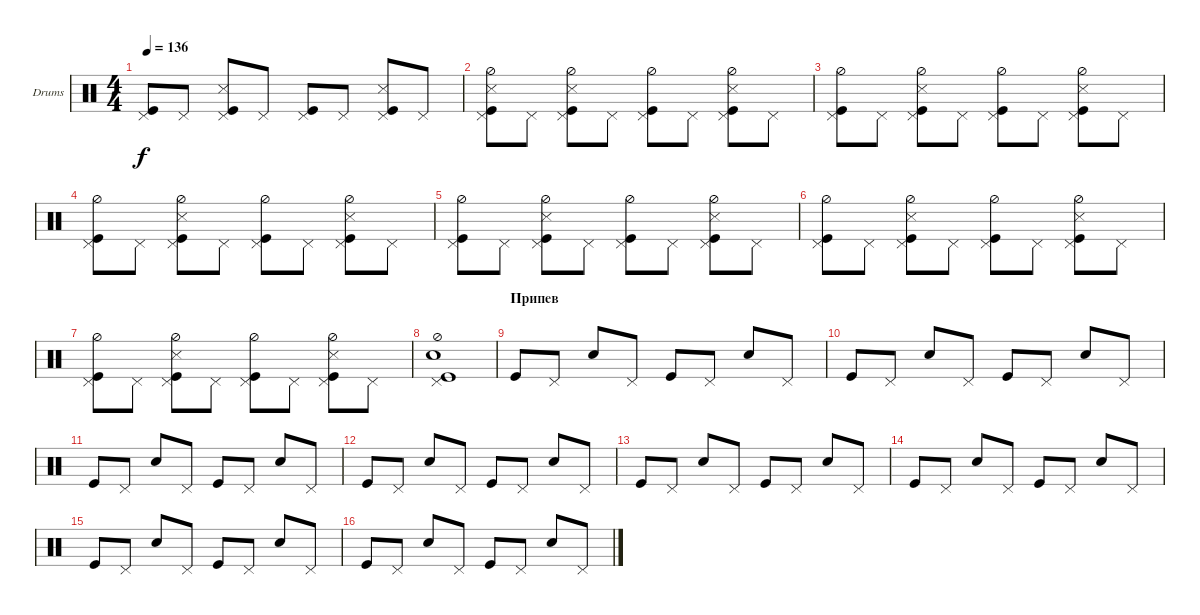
\defaultSystemsLayout 4
\bracketExtendMode groupsimilarinstruments
\firstSystemTrackNameOrientation horizontal
\otherSystemsTrackNameOrientation horizontal
\track ("Е. Кулаков" "Drums") {instrument percussion}
\staff {score}
\articulation defaults
\ts (4 4)
\tempo 136
\clef neutral
\ks c
("Pedal Hi-Hat (hit)" "Kick (hit)").8{dy f} "Pedal Hi-Hat (hit)".8 ("Pedal Hi-Hat (hit)" "Kick (hit)" "Snare (side stick) 3").8 "Pedal Hi-Hat (hit)".8 ("Pedal Hi-Hat (hit)" "Kick (hit)").8 "Pedal Hi-Hat (hit)".8 ("Pedal Hi-Hat (hit)" "Kick (hit)" "Snare (side stick) 3").8 "Pedal Hi-Hat (hit)".8 |
("Pedal Hi-Hat (hit)" "Kick (hit)" "Snare (side stick) 3" "Hi-Hat (half)").8 "Pedal Hi-Hat (hit)".8 ("Pedal Hi-Hat (hit)" "Kick (hit)" "Snare (side stick) 3" "Hi-Hat (half)").8 "Pedal Hi-Hat (hit)".8 ("Pedal Hi-Hat (hit)" "Kick (hit)" "Hi-Hat (half)").8 "Pedal Hi-Hat (hit)".8 ("Pedal Hi-Hat (hit)" "Kick (hit)" "Snare (side stick) 3" "Hi-Hat (half)").8 "Pedal Hi-Hat (hit)".8 |
("Pedal Hi-Hat (hit)" "Kick (hit)" "Hi-Hat (half)").8 "Pedal Hi-Hat (hit)".8 ("Pedal Hi-Hat (hit)" "Kick (hit)" "Snare (side stick) 3" "Hi-Hat (half)").8 "Pedal Hi-Hat (hit)".8 ("Pedal Hi-Hat (hit)" "Kick (hit)" "Hi-Hat (half)").8 "Pedal Hi-Hat (hit)".8 ("Pedal Hi-Hat (hit)" "Kick (hit)" "Snare (side stick) 3" "Hi-Hat (half)").8 "Pedal Hi-Hat (hit)".8 |
("Pedal Hi-Hat (hit)" "Kick (hit)" "Hi-Hat (half)").8 "Pedal Hi-Hat (hit)".8 ("Pedal Hi-Hat (hit)" "Kick (hit)" "Snare (side stick) 3" "Hi-Hat (half)").8 "Pedal Hi-Hat (hit)".8 ("Pedal Hi-Hat (hit)" "Kick (hit)" "Hi-Hat (half)").8 "Pedal Hi-Hat (hit)".8 ("Pedal Hi-Hat (hit)" "Kick (hit)" "Snare (side stick) 3" "Hi-Hat (half)").8 "Pedal Hi-Hat (hit)".8 |
("Pedal Hi-Hat (hit)" "Kick (hit)" "Hi-Hat (half)").8 "Pedal Hi-Hat (hit)".8 ("Pedal Hi-Hat (hit)" "Kick (hit)" "Snare (side stick) 3" "Hi-Hat (half)").8 "Pedal Hi-Hat (hit)".8 ("Pedal Hi-Hat (hit)" "Kick (hit)" "Hi-Hat (half)").8 "Pedal Hi-Hat (hit)".8 ("Pedal Hi-Hat (hit)" "Kick (hit)" "Snare (side stick) 3" "Hi-Hat (half)").8 "Pedal Hi-Hat (hit)".8 |
("Pedal Hi-Hat (hit)" "Kick (hit)" "Hi-Hat (half)").8 "Pedal Hi-Hat (hit)".8 ("Pedal Hi-Hat (hit)" "Kick (hit)" "Snare (side stick) 3" "Hi-Hat (half)").8 "Pedal Hi-Hat (hit)".8 ("Pedal Hi-Hat (hit)" "Kick (hit)" "Hi-Hat (half)").8 "Pedal Hi-Hat (hit)".8 ("Pedal Hi-Hat (hit)" "Kick (hit)" "Snare (side stick) 3" "Hi-Hat (half)").8 "Pedal Hi-Hat (hit)".8 |
("Pedal Hi-Hat (hit)" "Kick (hit)" "Hi-Hat (half)").8 "Pedal Hi-Hat (hit)".8 ("Pedal Hi-Hat (hit)" "Kick (hit)" "Snare (side stick) 3" "Hi-Hat (half)").8 "Pedal Hi-Hat (hit)".8 ("Pedal Hi-Hat (hit)" "Kick (hit)" "Hi-Hat (half)").8 "Pedal Hi-Hat (hit)".8 ("Pedal Hi-Hat (hit)" "Kick (hit)" "Snare (side stick) 3" "Hi-Hat (half)").8 "Pedal Hi-Hat (hit)".8 |
("Pedal Hi-Hat (hit)" "Kick (hit)" "Hi-Hat (half)" "Snare (hit) 2").1 |
\section ("" "Припев")
"Kick (hit)".8 "Pedal Hi-Hat (hit)".8 "Snare (hit) 2".8 "Pedal Hi-Hat (hit)".8 "Kick (hit)".8 "Pedal Hi-Hat (hit)".8 "Snare (hit) 2".8 "Pedal Hi-Hat (hit)".8 |
"Kick (hit)".8 "Pedal Hi-Hat (hit)".8 "Snare (hit) 2".8 "Pedal Hi-Hat (hit)".8 "Kick (hit)".8 "Pedal Hi-Hat (hit)".8 "Snare (hit) 2".8 "Pedal Hi-Hat (hit)".8 |
"Kick (hit)".8 "Pedal Hi-Hat (hit)".8 "Snare (hit) 2".8 "Pedal Hi-Hat (hit)".8 "Kick (hit)".8 "Pedal Hi-Hat (hit)".8 "Snare (hit) 2".8 "Pedal Hi-Hat (hit)".8 |
"Kick (hit)".8 "Pedal Hi-Hat (hit)".8 "Snare (hit) 2".8 "Pedal Hi-Hat (hit)".8 "Kick (hit)".8 "Pedal Hi-Hat (hit)".8 "Snare (hit) 2".8 "Pedal Hi-Hat (hit)".8 |
"Kick (hit)".8 "Pedal Hi-Hat (hit)".8 "Snare (hit) 2".8 "Pedal Hi-Hat (hit)".8 "Kick (hit)".8 "Pedal Hi-Hat (hit)".8 "Snare (hit) 2".8 "Pedal Hi-Hat (hit)".8 |
"Kick (hit)".8 "Pedal Hi-Hat (hit)".8 "Snare (hit) 2".8 "Pedal Hi-Hat (hit)".8 "Kick (hit)".8 "Pedal Hi-Hat (hit)".8 "Snare (hit) 2".8 "Pedal Hi-Hat (hit)".8 |
"Kick (hit)".8 "Pedal Hi-Hat (hit)".8 "Snare (hit) 2".8 "Pedal Hi-Hat (hit)".8 "Kick (hit)".8 "Pedal Hi-Hat (hit)".8 "Snare (hit) 2".8 "Pedal Hi-Hat (hit)".8 |
"Kick (hit)".8 "Pedal Hi-Hat (hit)".8 "Snare (hit) 2".8 "Pedal Hi-Hat (hit)".8 "Kick (hit)".8 "Pedal Hi-Hat (hit)".8 "Snare (hit) 2".8 "Pedal Hi-Hat (hit)".8
